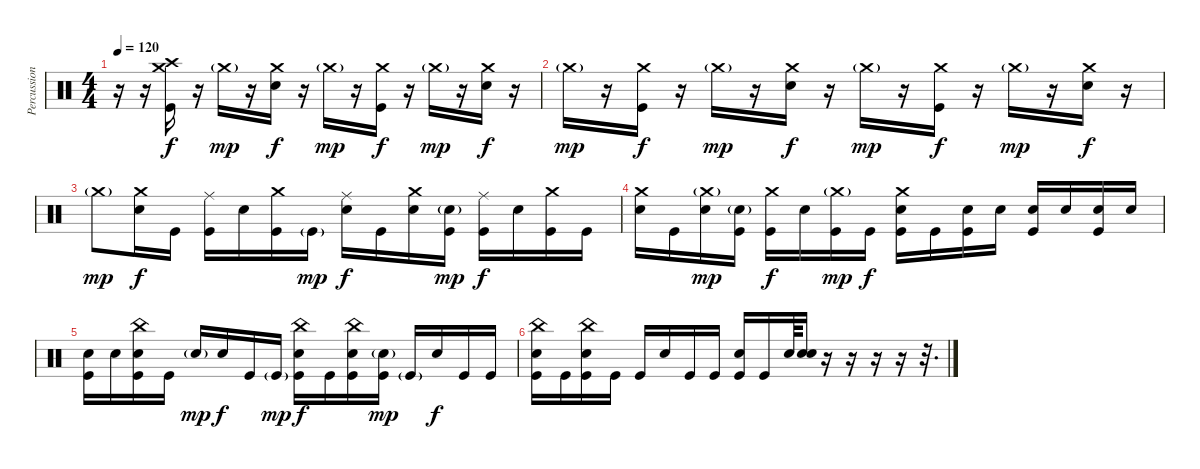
\track ("Percussion" "Percussion") {instrument percussion}
\staff {score}
\articulation defaults
\ts (4 4)
\tempo 120
\clef neutral
\ks c
r.16{dy f} r.16 ("Crash high (hit)" "Crash medium (hit)" "Kick (hit)").16 r.16 "Crash medium (hit)"{g}.16{dy mp} r.16 ("Crash medium (hit)" "Snare (hit) 2").16{dy f} r.16 "Crash medium (hit)"{g}.16{dy mp} r.16 ("Crash medium (hit)" "Kick (hit)").16{dy f} r.16 "Crash medium (hit)"{g}.16{dy mp} r.16 ("Crash medium (hit)" "Snare (hit) 2").16{dy f} r.16 |
"Crash medium (hit)"{g}.16{dy mp} r.16 ("Crash medium (hit)" "Kick (hit)").16{dy f} r.16 "Crash medium (hit)"{g}.16{dy mp} r.16 ("Crash medium (hit)" "Snare (hit) 2").16{dy f} r.16 "Crash medium (hit)"{g}.16{dy mp} r.16 ("Crash medium (hit)" "Kick (hit)").16{dy f} r.16 "Crash medium (hit)"{g}.16{dy mp} r.16 ("Crash medium (hit)" "Snare (hit) 2").16{dy f} r.16 |
"Crash medium (hit)"{g}.8{dy mp} ("Crash medium (hit)" "Snare (hit) 2").16{dy f} "Kick (hit)".16 ("Ride (middle)" "Kick (hit)").16 "Snare (hit) 2".16 ("Crash medium (hit)" "Kick (hit)").16 "Kick (hit)"{g}.16{dy mp} ("Ride (middle)" "Snare (hit) 2").16{dy f} "Kick (hit)".16 ("Crash medium (hit)" "Snare (hit) 2").16 ("Snare (hit) 2"{g} "Kick (hit)").16{dy mp} ("Ride (middle)" "Kick (hit)").16{dy f} "Snare (hit) 2".16 ("Crash medium (hit)" "Kick (hit)").16 "Kick (hit)".16 |
("Crash medium (hit)" "Snare (hit) 2").16 "Kick (hit)".16 ("Crash medium (hit)"{g} "Snare (hit) 2").16{dy mp} ("Snare (hit) 2"{g} "Kick (hit)").16 ("Crash medium (hit)" "Kick (hit)").16{dy f} "Snare (hit) 2".16 ("Crash medium (hit)"{g} "Kick (hit)").16{dy mp} "Kick (hit)".16{dy f} ("Crash medium (hit)" "Kick (hit)" "Snare (hit) 2").16 "Kick (hit)".16 ("Kick (hit)" "Snare (hit) 2").16 "Snare (hit) 2".16 ("Kick (hit)" "Snare (hit) 2").16 "Snare (hit) 2".16 ("Kick (hit)" "Snare (hit) 2").16 "Snare (hit) 2".16 |
("Kick (hit)" "Snare (hit) 2").16 "Snare (hit) 2".16 ("China (hit)" "Kick (hit)" "Snare (hit) 2").16 "Kick (hit)".16 "Snare (hit) 2"{g}.16{dy mp} "Snare (hit) 2".16{dy f} "Kick (hit)".16 "Kick (hit)"{g}.16{dy mp} ("China (hit)" "Kick (hit)" "Snare (hit) 2").16{dy f} "Kick (hit)".16 ("China (hit)" "Kick (hit)" "Snare (hit) 2").16 ("Snare (hit) 2"{g} "Kick (hit)").16{dy mp} "Kick (hit)"{g}.16 "Snare (hit) 2".16{dy f} "Kick (hit)".16 "Kick (hit)".16 |
("China (hit)" "Kick (hit)" "Snare (hit) 2").16 "Kick (hit)".16 ("China (hit)" "Kick (hit)" "Snare (hit) 2").16 "Kick (hit)".16 "Kick (hit)".16 "Snare (hit) 2".16 "Kick (hit)".16 "Kick (hit)".16 ("Kick (hit)" "Snare (hit) 2").16 "Kick (hit)".16 "Snare (hit) 2".64 ("Snare (hit) 2" "Snare (hit) 2").16 r.16 r.16 r.16 r.16 r.32{d}
